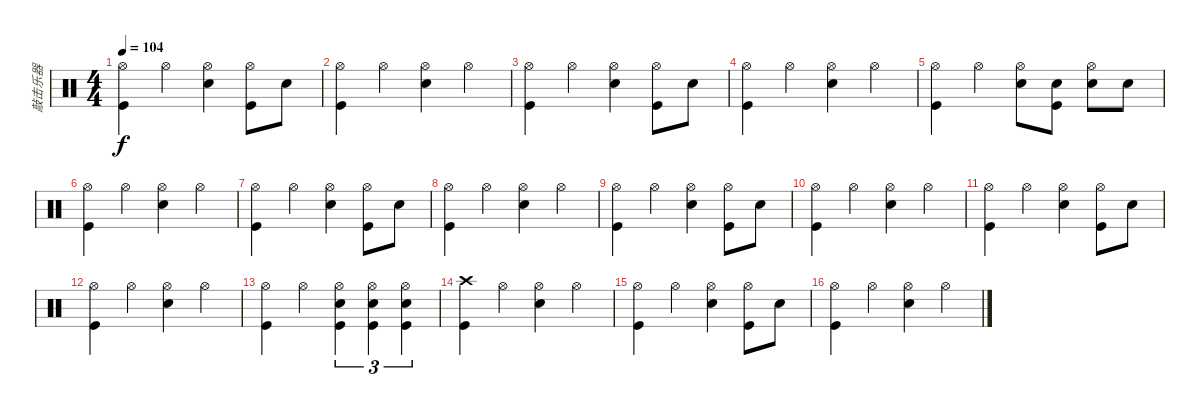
\track ("敲击乐器" "敲击乐器") {instrument percussion}
\staff {score}
\articulation defaults
\ts (4 4)
\tempo 104
\clef neutral
\ks c
("Hi-Hat (open)" "Kick (hit)").4{dy f} "Hi-Hat (open)".4 ("Hi-Hat (open)" "Snare (hit) 2").4 ("Hi-Hat (open)" "Kick (hit)").8 "Electric Snare (hit)".8 |
("Hi-Hat (open)" "Kick (hit)").4 "Hi-Hat (open)".4 ("Hi-Hat (open)" "Snare (hit) 2").4 "Hi-Hat (open)".4 |
("Hi-Hat (open)" "Kick (hit)").4 "Hi-Hat (open)".4 ("Hi-Hat (open)" "Snare (hit) 2").4 ("Hi-Hat (open)" "Kick (hit)").8 "Electric Snare (hit)".8 |
("Hi-Hat (open)" "Kick (hit)").4 "Hi-Hat (open)".4 ("Hi-Hat (open)" "Snare (hit) 2").4 "Hi-Hat (open)".4 |
("Hi-Hat (open)" "Kick (hit)").4 "Hi-Hat (open)".4 ("Hi-Hat (open)" "Snare (hit) 2").8 ("Snare (hit) 2" "Kick (hit)").8 ("Hi-Hat (open)" "Snare (hit) 2").8 "Snare (hit) 2".8 |
("Hi-Hat (open)" "Kick (hit)").4 "Hi-Hat (open)".4 ("Hi-Hat (open)" "Snare (hit) 2").4 "Hi-Hat (open)".4 |
("Hi-Hat (open)" "Kick (hit)").4 "Hi-Hat (open)".4 ("Hi-Hat (open)" "Snare (hit) 2").4 ("Hi-Hat (open)" "Kick (hit)").8 "Electric Snare (hit)".8 |
("Hi-Hat (open)" "Kick (hit)").4 "Hi-Hat (open)".4 ("Hi-Hat (open)" "Snare (hit) 2").4 "Hi-Hat (open)".4 |
("Hi-Hat (open)" "Kick (hit)").4 "Hi-Hat (open)".4 ("Hi-Hat (open)" "Snare (hit) 2").4 ("Hi-Hat (open)" "Kick (hit)").8 "Electric Snare (hit)".8 |
("Hi-Hat (open)" "Kick (hit)").4 "Hi-Hat (open)".4 ("Hi-Hat (open)" "Snare (hit) 2").4 "Hi-Hat (open)".4 |
("Hi-Hat (open)" "Kick (hit)").4 "Hi-Hat (open)".4 ("Hi-Hat (open)" "Snare (hit) 2").4 ("Hi-Hat (open)" "Kick (hit)").8 "Electric Snare (hit)".8 |
("Hi-Hat (open)" "Kick (hit)").4 "Hi-Hat (open)".4 ("Hi-Hat (open)" "Snare (hit) 2").4 "Hi-Hat (open)".4 |
("Hi-Hat (open)" "Kick (hit)").4 "Hi-Hat (open)".4 ("Hi-Hat (open)" "Snare (hit) 2" "Kick (hit)").4{tu (3 2)} ("Hi-Hat (open)" "Snare (hit) 2" "Kick (hit)").4{tu (3 2)} ("Hi-Hat (open)" "Snare (hit) 2" "Kick (hit)").4{tu (3 2)} |
("Crash high (hit)" "Kick (hit)").4 "Hi-Hat (open)".4 ("Hi-Hat (open)" "Snare (hit) 2").4 "Hi-Hat (open)".4 |
("Hi-Hat (open)" "Kick (hit)").4 "Hi-Hat (open)".4 ("Hi-Hat (open)" "Snare (hit) 2").4 ("Hi-Hat (open)" "Kick (hit)").8 "Electric Snare (hit)".8 |
("Hi-Hat (open)" "Kick (hit)").4 "Hi-Hat (open)".4 ("Hi-Hat (open)" "Snare (hit) 2").4 "Hi-Hat (open)".4
